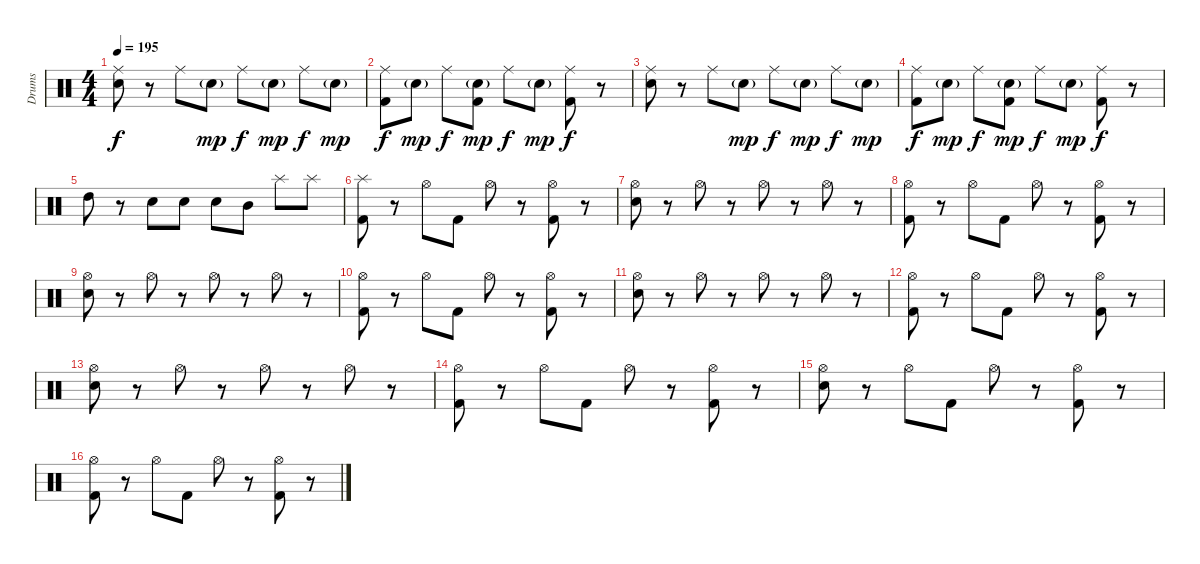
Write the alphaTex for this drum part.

\track ("Drums" "Drums") {instrument percussion}
\staff {score}
\articulation defaults
\ts (4 4)
\tempo 195
\clef neutral
\ks c
("Ride (middle)" "Snare (hit) 2").8{dy f} r.8 "Ride (middle)".8 "Snare (hit) 2"{g}.8{dy mp} "Ride (middle)".8{dy f} "Snare (hit) 2"{g}.8{dy mp} "Ride (middle)".8{dy f} "Snare (hit) 2"{g}.8{dy mp} |
("Ride (middle)" "Kick (hit) 2").8{dy f} "Snare (hit) 2"{g}.8{dy mp} "Ride (middle)".8{dy f} ("Snare (hit) 2"{g} "Kick (hit) 2").8{dy mp} "Ride (middle)".8{dy f} "Snare (hit) 2"{g}.8{dy mp} ("Ride (middle)" "Kick (hit) 2").8{dy f} r.8 |
("Ride (middle)" "Snare (hit) 2").8 r.8 "Ride (middle)".8 "Snare (hit) 2"{g}.8{dy mp} "Ride (middle)".8{dy f} "Snare (hit) 2"{g}.8{dy mp} "Ride (middle)".8{dy f} "Snare (hit) 2"{g}.8{dy mp} |
("Ride (middle)" "Kick (hit) 2").8{dy f} "Snare (hit) 2"{g}.8{dy mp} "Ride (middle)".8{dy f} ("Snare (hit) 2"{g} "Kick (hit) 2").8{dy mp} "Ride (middle)".8{dy f} "Snare (hit) 2"{g}.8{dy mp} ("Ride (middle)" "Kick (hit) 2").8{dy f} r.8 |
"High Tom (hit)".8 r.8 "Snare (hit) 2".8 "Snare (hit) 2".8 "Snare (hit) 2".8 "Mid Tom (hit)".8 "Splash (hit)".8 "Splash (hit)".8 |
("Splash (hit)" "Kick (hit) 2").8 r.8 "Hi-Hat (open)".8 "Kick (hit) 2".8 "Hi-Hat (open)".8 r.8 ("Hi-Hat (open)" "Kick (hit) 2").8 r.8 |
("Hi-Hat (open)" "Snare (hit) 2").8 r.8 "Hi-Hat (open)".8 r.8 "Hi-Hat (open)".8 r.8 "Hi-Hat (open)".8 r.8 |
("Hi-Hat (open)" "Kick (hit) 2").8 r.8 "Hi-Hat (open)".8 "Kick (hit) 2".8 "Hi-Hat (open)".8 r.8 ("Hi-Hat (open)" "Kick (hit) 2").8 r.8 |
("Hi-Hat (open)" "Snare (hit) 2").8 r.8 "Hi-Hat (open)".8 r.8 "Hi-Hat (open)".8 r.8 "Hi-Hat (open)".8 r.8 |
("Hi-Hat (open)" "Kick (hit) 2").8 r.8 "Hi-Hat (open)".8 "Kick (hit) 2".8 "Hi-Hat (open)".8 r.8 ("Hi-Hat (open)" "Kick (hit) 2").8 r.8 |
("Hi-Hat (open)" "Snare (hit) 2").8 r.8 "Hi-Hat (open)".8 r.8 "Hi-Hat (open)".8 r.8 "Hi-Hat (open)".8 r.8 |
("Hi-Hat (open)" "Kick (hit) 2").8 r.8 "Hi-Hat (open)".8 "Kick (hit) 2".8 "Hi-Hat (open)".8 r.8 ("Hi-Hat (open)" "Kick (hit) 2").8 r.8 |
("Hi-Hat (open)" "Snare (hit) 2").8 r.8 "Hi-Hat (open)".8 r.8 "Hi-Hat (open)".8 r.8 "Hi-Hat (open)".8 r.8 |
("Hi-Hat (open)" "Kick (hit) 2").8 r.8 "Hi-Hat (open)".8 "Kick (hit) 2".8 "Hi-Hat (open)".8 r.8 ("Hi-Hat (open)" "Kick (hit) 2").8 r.8 |
("Hi-Hat (open)" "Snare (hit) 2").8 r.8 "Hi-Hat (open)".8 "Kick (hit) 2".8 "Hi-Hat (open)".8 r.8 ("Hi-Hat (open)" "Kick (hit) 2").8 r.8 |
("Hi-Hat (open)" "Kick (hit) 2").8 r.8 "Hi-Hat (open)".8 "Kick (hit) 2".8 "Hi-Hat (open)".8 r.8 ("Hi-Hat (open)" "Kick (hit) 2").8 r.8
